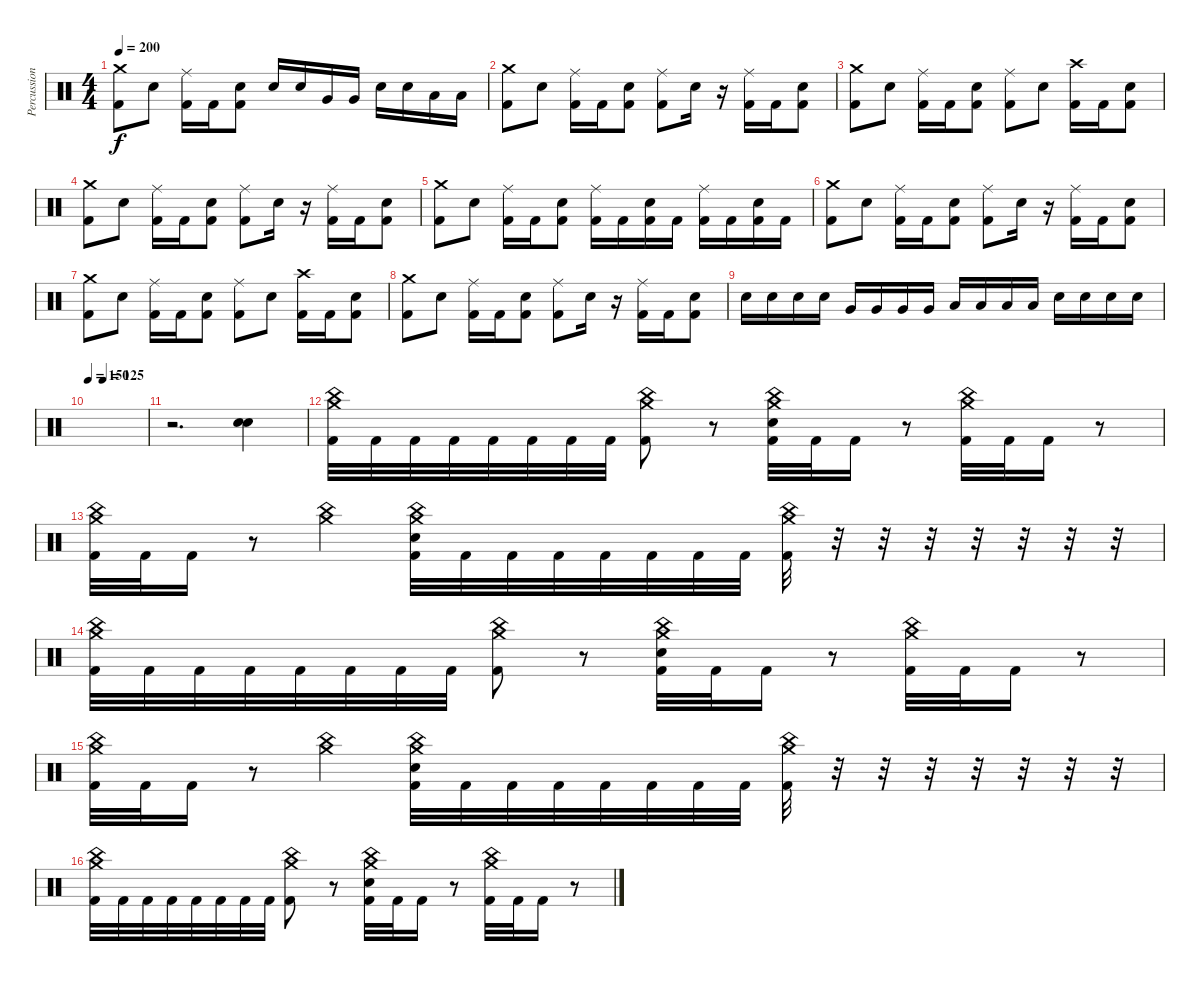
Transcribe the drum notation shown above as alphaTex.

\track ("Percussions" "Percussion") {instrument percussion}
\staff {score}
\articulation defaults
\ts (4 4)
\tempo 200
\clef neutral
\ks c
("Crash medium (hit)" "Kick (hit) 2").8{dy f} "Electric Snare (hit)".8 ("Ride (middle)" "Kick (hit) 2").16 "Kick (hit) 2".16 ("Electric Snare (hit)" "Kick (hit) 2").8 "Electric Snare (hit)".16 "Electric Snare (hit)".16 "Very Low Tom (hit)".16 "Very Low Tom (hit)".16 "Electric Snare (hit)".16 "Electric Snare (hit)".16 "Low Floor Tom (hit)".16 "Low Floor Tom (hit)".16 |
("Crash medium (hit)" "Kick (hit) 2").8 "Electric Snare (hit)".8 ("Ride (middle)" "Kick (hit) 2").16 "Kick (hit) 2".16 ("Electric Snare (hit)" "Kick (hit) 2").8 ("Ride (middle)" "Kick (hit) 2").8 "Electric Snare (hit)".16 r.16 ("Ride (middle)" "Kick (hit) 2").16 "Kick (hit) 2".16 ("Electric Snare (hit)" "Kick (hit) 2").8 |
("Crash medium (hit)" "Kick (hit) 2").8 "Electric Snare (hit)".8 ("Ride (middle)" "Kick (hit) 2").16 "Kick (hit) 2".16 ("Electric Snare (hit)" "Kick (hit) 2").8 ("Ride (middle)" "Kick (hit) 2").8 "Electric Snare (hit)".8 ("Crash high (hit)" "Kick (hit) 2").16 "Kick (hit) 2".16 ("Electric Snare (hit)" "Kick (hit) 2").8 |
("Crash medium (hit)" "Kick (hit) 2").8 "Electric Snare (hit)".8 ("Ride (middle)" "Kick (hit) 2").16 "Kick (hit) 2".16 ("Electric Snare (hit)" "Kick (hit) 2").8 ("Ride (middle)" "Kick (hit) 2").8 "Electric Snare (hit)".16 r.16 ("Ride (middle)" "Kick (hit) 2").16 "Kick (hit) 2".16 ("Electric Snare (hit)" "Kick (hit) 2").8 |
("Crash medium (hit)" "Kick (hit) 2").8 "Electric Snare (hit)".8 ("Ride (middle)" "Kick (hit) 2").16 "Kick (hit) 2".16 ("Electric Snare (hit)" "Kick (hit) 2").8 ("Ride (middle)" "Kick (hit) 2").16 "Kick (hit) 2".16 ("Electric Snare (hit)" "Kick (hit) 2").16 "Kick (hit) 2".16 ("Ride (middle)" "Kick (hit) 2").16 "Kick (hit) 2".16 ("Electric Snare (hit)" "Kick (hit) 2").16 "Kick (hit) 2".16 |
("Crash medium (hit)" "Kick (hit) 2").8 "Electric Snare (hit)".8 ("Ride (middle)" "Kick (hit) 2").16 "Kick (hit) 2".16 ("Electric Snare (hit)" "Kick (hit) 2").8 ("Ride (middle)" "Kick (hit) 2").8 "Electric Snare (hit)".16 r.16 ("Ride (middle)" "Kick (hit) 2").16 "Kick (hit) 2".16 ("Electric Snare (hit)" "Kick (hit) 2").8 |
("Crash medium (hit)" "Kick (hit) 2").8 "Electric Snare (hit)".8 ("Ride (middle)" "Kick (hit) 2").16 "Kick (hit) 2".16 ("Electric Snare (hit)" "Kick (hit) 2").8 ("Ride (middle)" "Kick (hit) 2").8 "Electric Snare (hit)".8 ("Crash high (hit)" "Kick (hit) 2").16 "Kick (hit) 2".16 ("Electric Snare (hit)" "Kick (hit) 2").8 |
("Crash medium (hit)" "Kick (hit) 2").8 "Electric Snare (hit)".8 ("Ride (middle)" "Kick (hit) 2").16 "Kick (hit) 2".16 ("Electric Snare (hit)" "Kick (hit) 2").8 ("Ride (middle)" "Kick (hit) 2").8 "Electric Snare (hit)".16 r.16 ("Ride (middle)" "Kick (hit) 2").16 "Kick (hit) 2".16 ("Electric Snare (hit)" "Kick (hit) 2").8 |
"Electric Snare (hit)".16 "Electric Snare (hit)".16 "Electric Snare (hit)".16 "Electric Snare (hit)".16 "Very Low Tom (hit)".16 "Very Low Tom (hit)".16 "Very Low Tom (hit)".16 "Very Low Tom (hit)".16 "Low Floor Tom (hit)".16 "Low Floor Tom (hit)".16 "Low Floor Tom (hit)".16 "Low Floor Tom (hit)".16 "Electric Snare (hit)".16 "Electric Snare (hit)".16 "Electric Snare (hit)".16 "Electric Snare (hit)".16 |
\tempo 150
\tempo (125 0.25)
|
r.2{d} ("Electric Snare (hit)" "Snare (hit) 2").4 |
("China (hit)" "Crash medium (hit)" "Kick (hit) 2").32 "Kick (hit) 2".32 "Kick (hit) 2".32 "Kick (hit) 2".32 "Kick (hit) 2".32 "Kick (hit) 2".32 "Kick (hit) 2".32 "Kick (hit) 2".32 ("China (hit)" "Crash medium (hit)" "Kick (hit) 2").8 r.8 ("Crash medium (hit)" "China (hit)" "Electric Snare (hit)" "Kick (hit) 2").32 "Kick (hit) 2".32 "Kick (hit) 2".16 r.8 ("Crash medium (hit)" "China (hit)" "Kick (hit) 2").32 "Kick (hit) 2".32 "Kick (hit) 2".16 r.8 |
("China (hit)" "Crash medium (hit)" "Kick (hit) 2").32 "Kick (hit) 2".32 "Kick (hit) 2".16 r.8 ("China (hit)" "Crash medium (hit)").4 ("China (hit)" "Crash medium (hit)" "Electric Snare (hit)" "Kick (hit) 2").32 "Kick (hit) 2".32 "Kick (hit) 2".32 "Kick (hit) 2".32 "Kick (hit) 2".32 "Kick (hit) 2".32 "Kick (hit) 2".32 "Kick (hit) 2".32 ("China (hit)" "Crash medium (hit)" "Kick (hit) 2").32 r.32 r.32 r.32 r.32 r.32 r.32 r.32 |
("China (hit)" "Crash medium (hit)" "Kick (hit) 2").32 "Kick (hit) 2".32 "Kick (hit) 2".32 "Kick (hit) 2".32 "Kick (hit) 2".32 "Kick (hit) 2".32 "Kick (hit) 2".32 "Kick (hit) 2".32 ("China (hit)" "Crash medium (hit)" "Kick (hit) 2").8 r.8 ("Crash medium (hit)" "China (hit)" "Electric Snare (hit)" "Kick (hit) 2").32 "Kick (hit) 2".32 "Kick (hit) 2".16 r.8 ("Crash medium (hit)" "China (hit)" "Kick (hit) 2").32 "Kick (hit) 2".32 "Kick (hit) 2".16 r.8 |
("China (hit)" "Crash medium (hit)" "Kick (hit) 2").32 "Kick (hit) 2".32 "Kick (hit) 2".16 r.8 ("China (hit)" "Crash medium (hit)").4 ("China (hit)" "Crash medium (hit)" "Electric Snare (hit)" "Kick (hit) 2").32 "Kick (hit) 2".32 "Kick (hit) 2".32 "Kick (hit) 2".32 "Kick (hit) 2".32 "Kick (hit) 2".32 "Kick (hit) 2".32 "Kick (hit) 2".32 ("China (hit)" "Crash medium (hit)" "Kick (hit) 2").32 r.32 r.32 r.32 r.32 r.32 r.32 r.32 |
("China (hit)" "Crash medium (hit)" "Kick (hit) 2").32 "Kick (hit) 2".32 "Kick (hit) 2".32 "Kick (hit) 2".32 "Kick (hit) 2".32 "Kick (hit) 2".32 "Kick (hit) 2".32 "Kick (hit) 2".32 ("China (hit)" "Crash medium (hit)" "Kick (hit) 2").8 r.8 ("Crash medium (hit)" "China (hit)" "Electric Snare (hit)" "Kick (hit) 2").32 "Kick (hit) 2".32 "Kick (hit) 2".16 r.8 ("Crash medium (hit)" "China (hit)" "Kick (hit) 2").32 "Kick (hit) 2".32 "Kick (hit) 2".16 r.8
